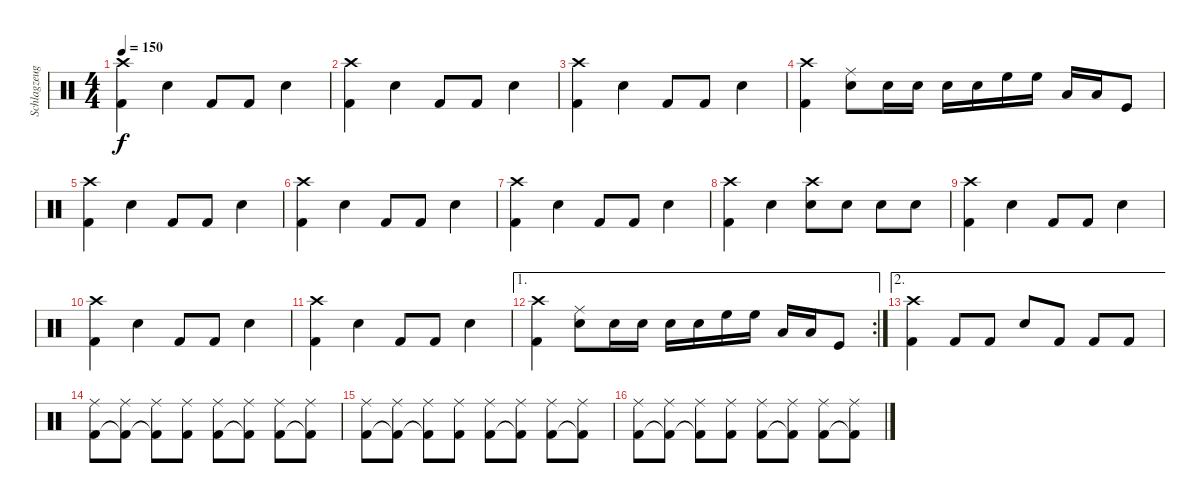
\track ("Schlagzeug" "Schlagzeug") {instrument percussion}
\staff {score}
\articulation defaults
\ts (4 4)
\tempo 150
\clef neutral
\ks c
("Crash high (hit)" "Kick (hit) 2").4{dy f} "Snare (hit) 2".4 "Kick (hit) 2".8 "Kick (hit) 2".8 "Snare (hit) 2".4 |
("Crash high (hit)" "Kick (hit) 2").4 "Snare (hit) 2".4 "Kick (hit) 2".8 "Kick (hit) 2".8 "Snare (hit) 2".4 |
("Crash high (hit)" "Kick (hit) 2").4 "Snare (hit) 2".4 "Kick (hit) 2".8 "Kick (hit) 2".8 "Snare (hit) 2".4 |
("Crash high (hit)" "Kick (hit) 2").4 ("Ride (middle)" "Snare (hit) 2").8 "Snare (hit) 2".16 "Snare (hit) 2".16 "Snare (hit) 2".16 "Snare (hit) 2".16 "High Floor Tom (hit)".16 "High Floor Tom (hit)".16 "Low Tom (hit)".16 "Low Tom (hit)".16 "Kick (hit)".8 |
("Crash high (hit)" "Kick (hit) 2").4 "Snare (hit) 2".4 "Kick (hit) 2".8 "Kick (hit) 2".8 "Snare (hit) 2".4 |
("Crash high (hit)" "Kick (hit) 2").4 "Snare (hit) 2".4 "Kick (hit) 2".8 "Kick (hit) 2".8 "Snare (hit) 2".4 |
("Crash high (hit)" "Kick (hit) 2").4 "Snare (hit) 2".4 "Kick (hit) 2".8 "Kick (hit) 2".8 "Snare (hit) 2".4 |
("Crash high (hit)" "Kick (hit) 2").4 "Snare (hit) 2".4 ("Crash high (hit)" "Snare (hit) 2").8 "Snare (hit) 2".8 "Snare (hit) 2".8 "Snare (hit) 2".8 |
("Crash high (hit)" "Kick (hit) 2").4 "Snare (hit) 2".4 "Kick (hit) 2".8 "Kick (hit) 2".8 "Snare (hit) 2".4 |
("Crash high (hit)" "Kick (hit) 2").4 "Snare (hit) 2".4 "Kick (hit) 2".8 "Kick (hit) 2".8 "Snare (hit) 2".4 |
("Crash high (hit)" "Kick (hit) 2").4 "Snare (hit) 2".4 "Kick (hit) 2".8 "Kick (hit) 2".8 "Snare (hit) 2".4 |
\ae 1
\rc 2
("Crash high (hit)" "Kick (hit) 2").4 ("Ride (middle)" "Snare (hit) 2").8 "Snare (hit) 2".16 "Snare (hit) 2".16 "Snare (hit) 2".16 "Snare (hit) 2".16 "High Floor Tom (hit)".16 "High Floor Tom (hit)".16 "Low Tom (hit)".16 "Low Tom (hit)".16 "Kick (hit)".8 |
\ae 2
("Crash high (hit)" "Kick (hit) 2").4 "Kick (hit) 2".8 "Kick (hit) 2".8 "Snare (hit) 2".8 "Kick (hit) 2".8 "Kick (hit) 2".8 "Kick (hit) 2".8 |
("Ride (middle)" "Kick (hit) 2").8 ("Ride (middle)" "Kick (hit) 2"{t}).8 ("Ride (middle)" "Kick (hit) 2"{t}).8 ("Ride (middle)" "Kick (hit) 2").8 ("Ride (middle)" "Kick (hit) 2").8 ("Ride (middle)" "Kick (hit) 2"{t}).8 ("Ride (middle)" "Kick (hit) 2").8 ("Ride (middle)" "Kick (hit) 2"{t}).8 |
("Ride (middle)" "Kick (hit) 2").8 ("Ride (middle)" "Kick (hit) 2"{t}).8 ("Ride (middle)" "Kick (hit) 2"{t}).8 ("Ride (middle)" "Kick (hit) 2").8 ("Ride (middle)" "Kick (hit) 2").8 ("Ride (middle)" "Kick (hit) 2"{t}).8 ("Ride (middle)" "Kick (hit) 2").8 ("Ride (middle)" "Kick (hit) 2"{t}).8 |
("Ride (middle)" "Kick (hit) 2").8 ("Ride (middle)" "Kick (hit) 2"{t}).8 ("Ride (middle)" "Kick (hit) 2"{t}).8 ("Ride (middle)" "Kick (hit) 2").8 ("Ride (middle)" "Kick (hit) 2").8 ("Ride (middle)" "Kick (hit) 2"{t}).8 ("Ride (middle)" "Kick (hit) 2").8 ("Ride (middle)" "Kick (hit) 2"{t}).8
